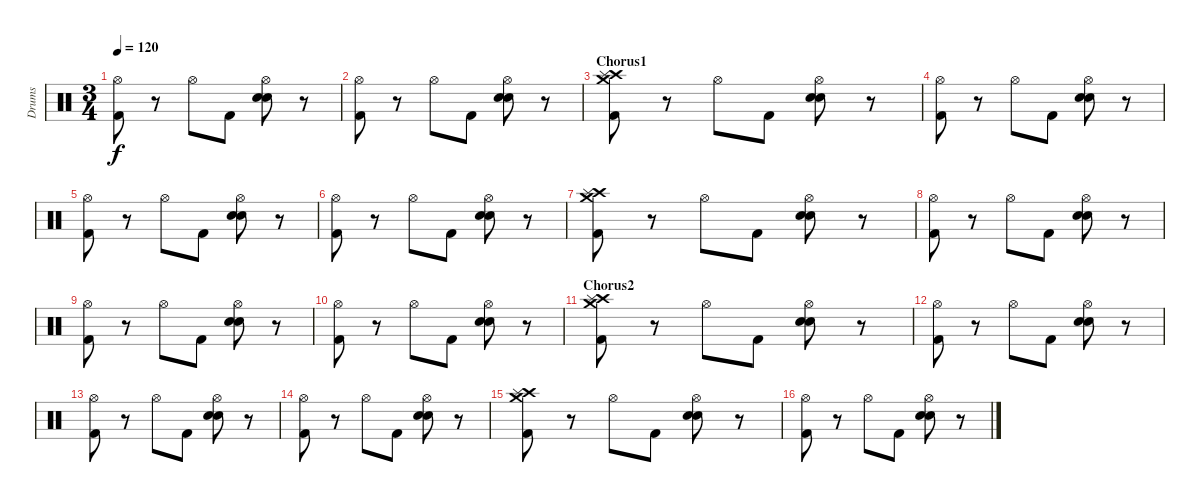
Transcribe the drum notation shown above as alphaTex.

\track ("Drums" "Drums") {instrument percussion}
\staff {score}
\articulation defaults
\ts (3 4)
\tempo 120
\clef neutral
\ks c
("Kick (hit) 2" "Hi-Hat (open)").8{dy f} r.8 "Hi-Hat (open)".8 "Kick (hit) 2".8 ("Electric Snare (hit)" "Electric Snare (hit)" "Hi-Hat (open)").8 r.8 |
("Kick (hit) 2" "Hi-Hat (open)").8 r.8 "Hi-Hat (open)".8 "Kick (hit) 2".8 ("Electric Snare (hit)" "Electric Snare (hit)" "Hi-Hat (open)").8 r.8 |
\section ("" "Chorus1")
("Kick (hit) 2" "Crash medium (hit)" "Crash high (hit)" "Splash (hit)").8 r.8 "Hi-Hat (open)".8 "Kick (hit) 2".8 ("Electric Snare (hit)" "Electric Snare (hit)" "Hi-Hat (open)").8 r.8 |
("Kick (hit) 2" "Hi-Hat (open)").8 r.8 "Hi-Hat (open)".8 "Kick (hit) 2".8 ("Electric Snare (hit)" "Electric Snare (hit)" "Hi-Hat (open)").8 r.8 |
("Kick (hit) 2" "Hi-Hat (open)").8 r.8 "Hi-Hat (open)".8 "Kick (hit) 2".8 ("Electric Snare (hit)" "Electric Snare (hit)" "Hi-Hat (open)").8 r.8 |
("Kick (hit) 2" "Hi-Hat (open)").8 r.8 "Hi-Hat (open)".8 "Kick (hit) 2".8 ("Electric Snare (hit)" "Electric Snare (hit)" "Hi-Hat (open)").8 r.8 |
("Kick (hit) 2" "Crash medium (hit)" "Crash high (hit)" "Splash (hit)").8 r.8 "Hi-Hat (open)".8 "Kick (hit) 2".8 ("Electric Snare (hit)" "Electric Snare (hit)" "Hi-Hat (open)").8 r.8 |
("Kick (hit) 2" "Hi-Hat (open)").8 r.8 "Hi-Hat (open)".8 "Kick (hit) 2".8 ("Electric Snare (hit)" "Electric Snare (hit)" "Hi-Hat (open)").8 r.8 |
("Kick (hit) 2" "Hi-Hat (open)").8 r.8 "Hi-Hat (open)".8 "Kick (hit) 2".8 ("Electric Snare (hit)" "Electric Snare (hit)" "Hi-Hat (open)").8 r.8 |
("Kick (hit) 2" "Hi-Hat (open)").8 r.8 "Hi-Hat (open)".8 "Kick (hit) 2".8 ("Electric Snare (hit)" "Electric Snare (hit)" "Hi-Hat (open)").8 r.8 |
\section ("" "Chorus2")
("Kick (hit) 2" "Crash medium (hit)" "Crash high (hit)" "Splash (hit)").8 r.8 "Hi-Hat (open)".8 "Kick (hit) 2".8 ("Electric Snare (hit)" "Electric Snare (hit)" "Hi-Hat (open)").8 r.8 |
("Kick (hit) 2" "Hi-Hat (open)").8 r.8 "Hi-Hat (open)".8 "Kick (hit) 2".8 ("Electric Snare (hit)" "Electric Snare (hit)" "Hi-Hat (open)").8 r.8 |
("Kick (hit) 2" "Hi-Hat (open)").8 r.8 "Hi-Hat (open)".8 "Kick (hit) 2".8 ("Electric Snare (hit)" "Electric Snare (hit)" "Hi-Hat (open)").8 r.8 |
("Kick (hit) 2" "Hi-Hat (open)").8 r.8 "Hi-Hat (open)".8 "Kick (hit) 2".8 ("Electric Snare (hit)" "Electric Snare (hit)" "Hi-Hat (open)").8 r.8 |
("Kick (hit) 2" "Crash medium (hit)" "Crash high (hit)" "Splash (hit)").8 r.8 "Hi-Hat (open)".8 "Kick (hit) 2".8 ("Electric Snare (hit)" "Electric Snare (hit)" "Hi-Hat (open)").8 r.8 |
("Kick (hit) 2" "Hi-Hat (open)").8 r.8 "Hi-Hat (open)".8 "Kick (hit) 2".8 ("Electric Snare (hit)" "Electric Snare (hit)" "Hi-Hat (open)").8 r.8
